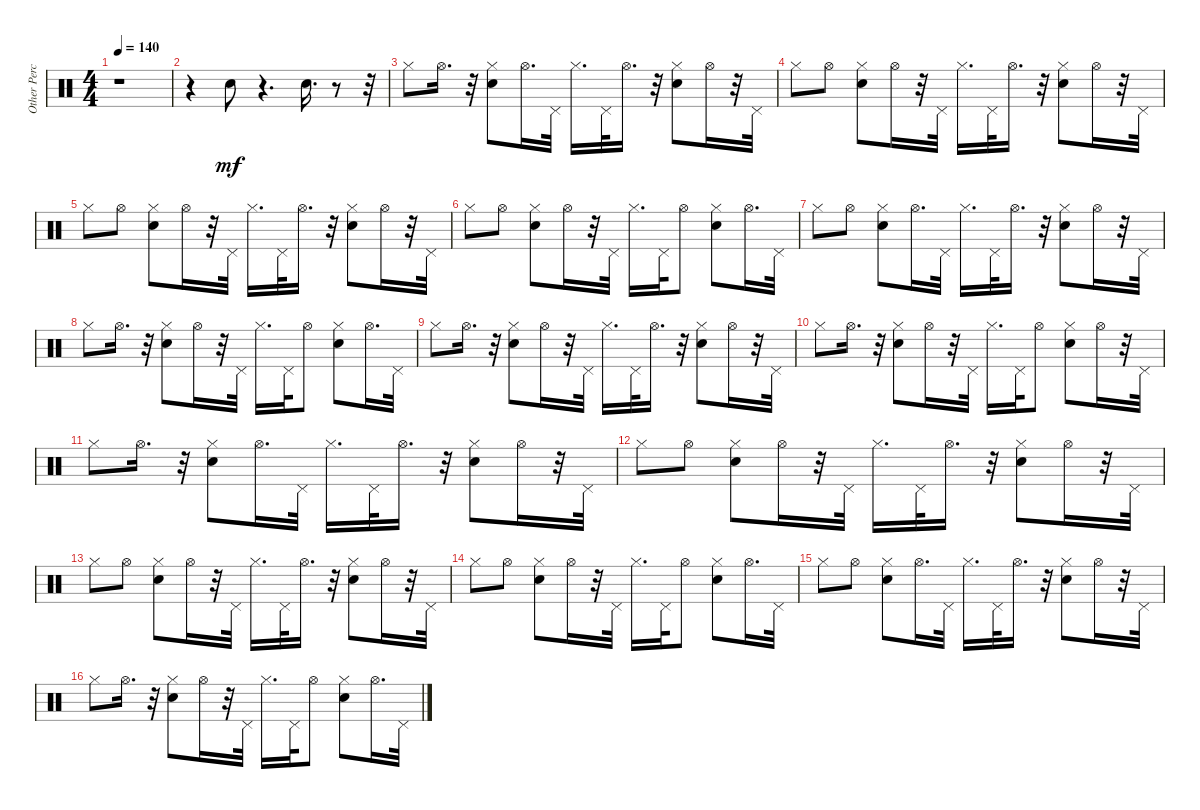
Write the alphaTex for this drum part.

\track ("Other Percussion" "Other Perc") {instrument percussion}
\staff {score}
\articulation defaults
\ts (4 4)
\tempo 140
\clef neutral
\ks c
r.1{dy mf} |
r.4 "Hand Clap (hit)".8 r.4{d} "Hand Clap (hit)".16{d} r.8 r.32 |
"Hi-Hat (closed)".8 "Hi-Hat (open)".16{d} r.32 ("Hand Clap (hit)" "Hi-Hat (closed)").8 "Hi-Hat (open)".16{d} "Pedal Hi-Hat (hit)".32 "Hi-Hat (closed)".16{d} "Pedal Hi-Hat (hit)".32 "Hi-Hat (open)".16{d} r.32 ("Hand Clap (hit)" "Hi-Hat (closed)").8 "Hi-Hat (open)".16 r.32 "Pedal Hi-Hat (hit)".32 |
"Hi-Hat (closed)".8 "Hi-Hat (open)".8 ("Hand Clap (hit)" "Hi-Hat (closed)").8 "Hi-Hat (open)".16 r.32 "Pedal Hi-Hat (hit)".32 "Hi-Hat (closed)".16{d} "Pedal Hi-Hat (hit)".32 "Hi-Hat (open)".16{d} r.32 ("Hand Clap (hit)" "Hi-Hat (closed)").8 "Hi-Hat (open)".16 r.32 "Pedal Hi-Hat (hit)".32 |
"Hi-Hat (closed)".8 "Hi-Hat (open)".8 ("Hand Clap (hit)" "Hi-Hat (closed)").8 "Hi-Hat (open)".16 r.32 "Pedal Hi-Hat (hit)".32 "Hi-Hat (closed)".16{d} "Pedal Hi-Hat (hit)".32 "Hi-Hat (open)".16{d} r.32 ("Hand Clap (hit)" "Hi-Hat (closed)").8 "Hi-Hat (open)".16 r.32 "Pedal Hi-Hat (hit)".32 |
"Hi-Hat (closed)".8 "Hi-Hat (open)".8 ("Hand Clap (hit)" "Hi-Hat (closed)").8 "Hi-Hat (open)".16 r.32 "Pedal Hi-Hat (hit)".32 "Hi-Hat (closed)".16{d} "Pedal Hi-Hat (hit)".32 "Hi-Hat (open)".8 ("Hand Clap (hit)" "Hi-Hat (closed)").8 "Hi-Hat (open)".16{d} "Pedal Hi-Hat (hit)".32 |
"Hi-Hat (closed)".8 "Hi-Hat (open)".8 ("Hand Clap (hit)" "Hi-Hat (closed)").8 "Hi-Hat (open)".16{d} "Pedal Hi-Hat (hit)".32 "Hi-Hat (closed)".16{d} "Pedal Hi-Hat (hit)".32 "Hi-Hat (open)".16{d} r.32 ("Hand Clap (hit)" "Hi-Hat (closed)").8 "Hi-Hat (open)".16 r.32 "Pedal Hi-Hat (hit)".32 |
"Hi-Hat (closed)".8 "Hi-Hat (open)".16{d} r.32 ("Hand Clap (hit)" "Hi-Hat (closed)").8 "Hi-Hat (open)".16 r.32 "Pedal Hi-Hat (hit)".32 "Hi-Hat (closed)".16{d} "Pedal Hi-Hat (hit)".32 "Hi-Hat (open)".8 ("Hand Clap (hit)" "Hi-Hat (closed)").8 "Hi-Hat (open)".16{d} "Pedal Hi-Hat (hit)".32 |
"Hi-Hat (closed)".8 "Hi-Hat (open)".16{d} r.32 ("Hand Clap (hit)" "Hi-Hat (closed)").8 "Hi-Hat (open)".16 r.32 "Pedal Hi-Hat (hit)".32 "Hi-Hat (closed)".16{d} "Pedal Hi-Hat (hit)".32 "Hi-Hat (open)".16{d} r.32 ("Hand Clap (hit)" "Hi-Hat (closed)").8 "Hi-Hat (open)".16 r.32 "Pedal Hi-Hat (hit)".32 |
"Hi-Hat (closed)".8 "Hi-Hat (open)".16{d} r.32 ("Hand Clap (hit)" "Hi-Hat (closed)").8 "Hi-Hat (open)".16 r.32 "Pedal Hi-Hat (hit)".32 "Hi-Hat (closed)".16{d} "Pedal Hi-Hat (hit)".32 "Hi-Hat (open)".8 ("Hand Clap (hit)" "Hi-Hat (closed)").8 "Hi-Hat (open)".16 r.32 "Pedal Hi-Hat (hit)".32 |
"Hi-Hat (closed)".8 "Hi-Hat (open)".16{d} r.32 ("Hand Clap (hit)" "Hi-Hat (closed)").8 "Hi-Hat (open)".16{d} "Pedal Hi-Hat (hit)".32 "Hi-Hat (closed)".16{d} "Pedal Hi-Hat (hit)".32 "Hi-Hat (open)".16{d} r.32 ("Hand Clap (hit)" "Hi-Hat (closed)").8 "Hi-Hat (open)".16 r.32 "Pedal Hi-Hat (hit)".32 |
"Hi-Hat (closed)".8 "Hi-Hat (open)".8 ("Hand Clap (hit)" "Hi-Hat (closed)").8 "Hi-Hat (open)".16 r.32 "Pedal Hi-Hat (hit)".32 "Hi-Hat (closed)".16{d} "Pedal Hi-Hat (hit)".32 "Hi-Hat (open)".16{d} r.32 ("Hand Clap (hit)" "Hi-Hat (closed)").8 "Hi-Hat (open)".16 r.32 "Pedal Hi-Hat (hit)".32 |
"Hi-Hat (closed)".8 "Hi-Hat (open)".8 ("Hand Clap (hit)" "Hi-Hat (closed)").8 "Hi-Hat (open)".16 r.32 "Pedal Hi-Hat (hit)".32 "Hi-Hat (closed)".16{d} "Pedal Hi-Hat (hit)".32 "Hi-Hat (open)".16{d} r.32 ("Hand Clap (hit)" "Hi-Hat (closed)").8 "Hi-Hat (open)".16 r.32 "Pedal Hi-Hat (hit)".32 |
"Hi-Hat (closed)".8 "Hi-Hat (open)".8 ("Hand Clap (hit)" "Hi-Hat (closed)").8 "Hi-Hat (open)".16 r.32 "Pedal Hi-Hat (hit)".32 "Hi-Hat (closed)".16{d} "Pedal Hi-Hat (hit)".32 "Hi-Hat (open)".8 ("Hand Clap (hit)" "Hi-Hat (closed)").8 "Hi-Hat (open)".16{d} "Pedal Hi-Hat (hit)".32 |
"Hi-Hat (closed)".8 "Hi-Hat (open)".8 ("Hand Clap (hit)" "Hi-Hat (closed)").8 "Hi-Hat (open)".16{d} "Pedal Hi-Hat (hit)".32 "Hi-Hat (closed)".16{d} "Pedal Hi-Hat (hit)".32 "Hi-Hat (open)".16{d} r.32 ("Hand Clap (hit)" "Hi-Hat (closed)").8 "Hi-Hat (open)".16 r.32 "Pedal Hi-Hat (hit)".32 |
"Hi-Hat (closed)".8 "Hi-Hat (open)".16{d} r.32 ("Hand Clap (hit)" "Hi-Hat (closed)").8 "Hi-Hat (open)".16 r.32 "Pedal Hi-Hat (hit)".32 "Hi-Hat (closed)".16{d} "Pedal Hi-Hat (hit)".32 "Hi-Hat (open)".8 ("Hand Clap (hit)" "Hi-Hat (closed)").8 "Hi-Hat (open)".16{d} "Pedal Hi-Hat (hit)".32
